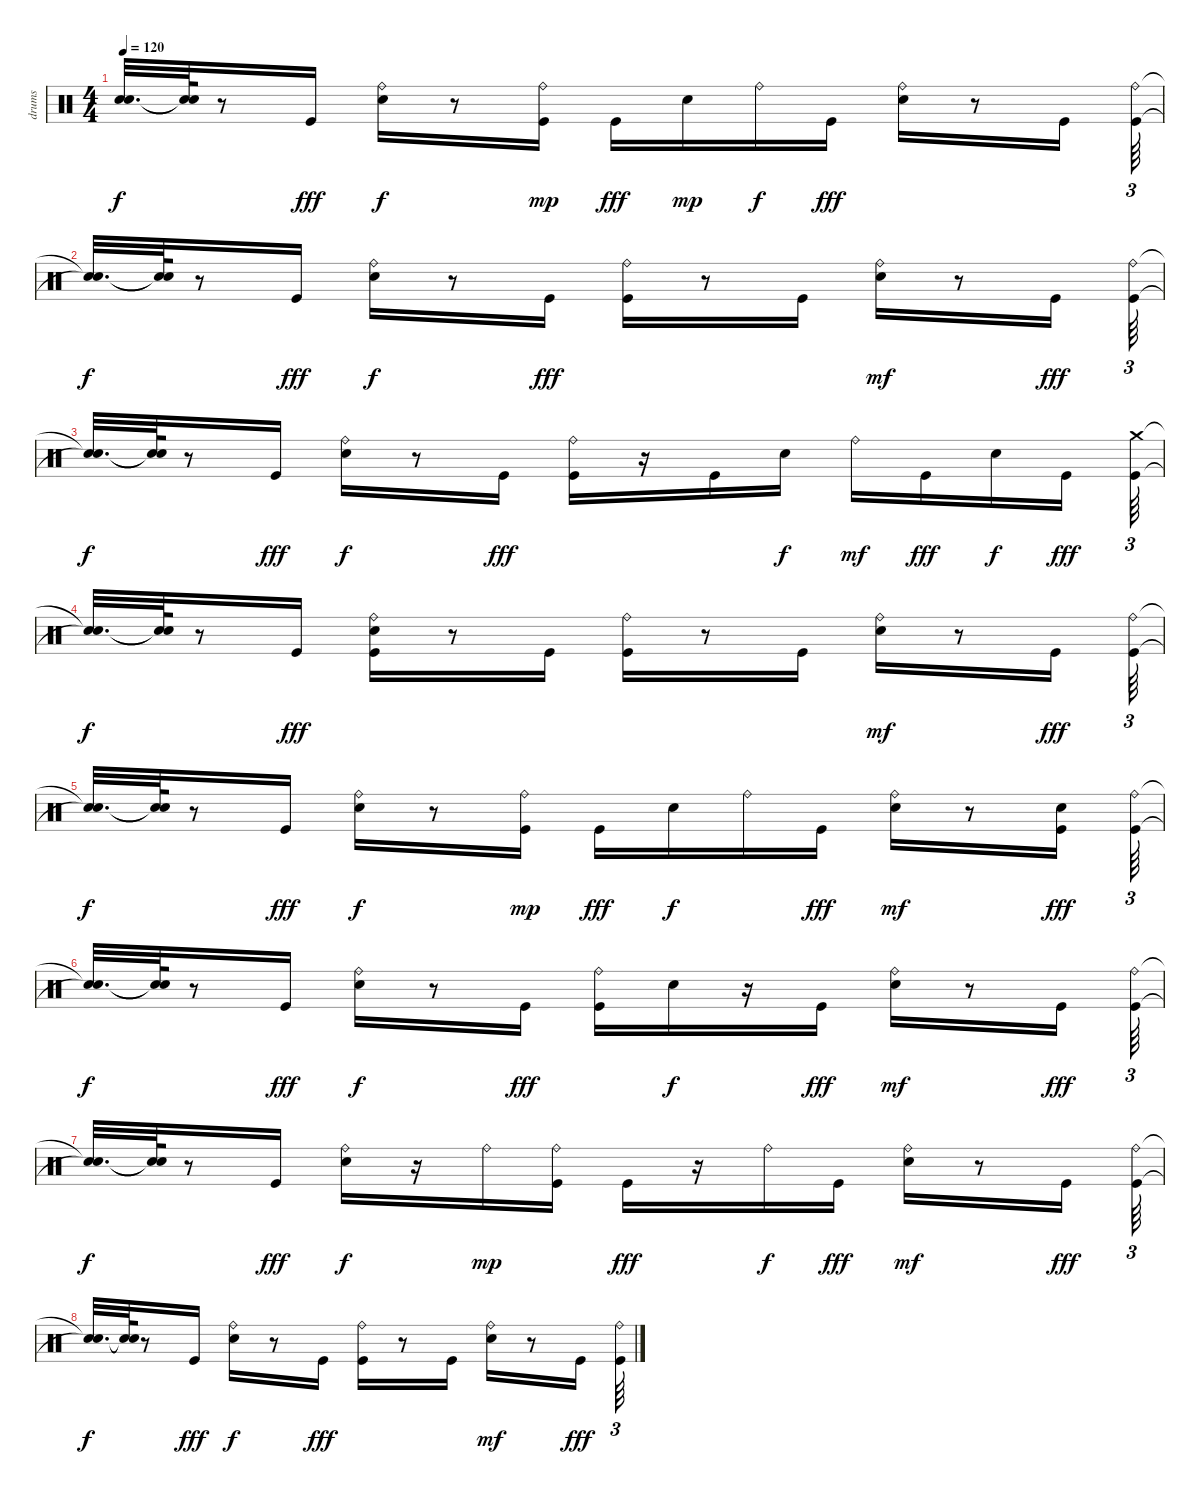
\track ("drums" "drums") {instrument percussion}
\staff {score}
\articulation defaults
\ts (4 4)
\tempo 120
\clef neutral
\ks c
("Snare (hit)"{t} "Snare (hit)"{t}).32{d dy f} ("Snare (hit)"{t} "Snare (hit)"{t}).64 r.8 "Kick (hit)".16{dy fff} ("Snare (hit) 2" "Ride (bell)").16{dy f} r.8 ("Kick (hit)" "Ride (bell)").16{dy mp} "Kick (hit)".16{dy fff} "Snare (hit) 2".16{dy mp} "Ride (bell)".16{dy f} "Kick (hit)".16{dy fff} ("Snare (hit) 2" "Ride (bell)").16 r.8 "Kick (hit)".16 ("Kick (hit)" "Ride (bell)").64{tu (3 2)} |
("Snare (hit)"{t} "Snare (hit)"{t}).32{d dy f} ("Snare (hit)"{t} "Snare (hit)"{t}).64 r.8 "Kick (hit)".16{dy fff} ("Snare (hit) 2" "Ride (bell)").16{dy f} r.8 "Kick (hit)".16{dy fff} ("Kick (hit)" "Ride (bell)").16 r.8 "Kick (hit)".16 ("Snare (hit) 2" "Ride (bell)").16{dy mf} r.8 "Kick (hit)".16{dy fff} ("Kick (hit)" "Ride (bell)").64{tu (3 2)} |
("Snare (hit)"{t} "Snare (hit)"{t}).32{d dy f} ("Snare (hit)"{t} "Snare (hit)"{t}).64 r.8 "Kick (hit)".16{dy fff} ("Snare (hit) 2" "Ride (bell)").16{dy f} r.8 "Kick (hit)".16{dy fff} ("Kick (hit)" "Ride (bell)").16 r.16 "Kick (hit)".16 "Snare (hit) 2".16{dy f} "Ride (bell)".16{dy mf} "Kick (hit)".16{dy fff} "Snare (hit) 2".16{dy f} "Kick (hit)".16{dy fff} ("Kick (hit)" "Crash medium (hit)").64{tu (3 2)} |
("Snare (hit)"{t} "Snare (hit)"{t}).32{d dy f} ("Snare (hit)"{t} "Snare (hit)"{t}).64 r.8 "Kick (hit)".16{dy fff} ("Kick (hit)" "Snare (hit) 2" "Ride (bell)").16 r.8 "Kick (hit)".16 ("Kick (hit)" "Ride (bell)").16 r.8 "Kick (hit)".16 ("Snare (hit) 2" "Ride (bell)").16{dy mf} r.8 "Kick (hit)".16{dy fff} ("Kick (hit)" "Ride (bell)").64{tu (3 2)} |
("Snare (hit)"{t} "Snare (hit)"{t}).32{d dy f} ("Snare (hit)"{t} "Snare (hit)"{t}).64 r.8 "Kick (hit)".16{dy fff} ("Snare (hit) 2" "Ride (bell)").16{dy f} r.8 ("Kick (hit)" "Ride (bell)").16{dy mp} "Kick (hit)".16{dy fff} "Snare (hit) 2".16{dy f} "Ride (bell)".16 "Kick (hit)".16{dy fff} ("Snare (hit) 2" "Ride (bell)").16{dy mf} r.8 ("Kick (hit)" "Snare (hit) 2").16{dy fff} ("Kick (hit)" "Ride (bell)").64{tu (3 2)} |
("Snare (hit)"{t} "Snare (hit)"{t}).32{d dy f} ("Snare (hit)"{t} "Snare (hit)"{t}).64 r.8 "Kick (hit)".16{dy fff} ("Snare (hit) 2" "Ride (bell)").16{dy f} r.8 "Kick (hit)".16{dy fff} ("Kick (hit)" "Ride (bell)").16 "Snare (hit) 2".16{dy f} r.16 "Kick (hit)".16{dy fff} ("Snare (hit) 2" "Ride (bell)").16{dy mf} r.8 "Kick (hit)".16{dy fff} ("Kick (hit)" "Ride (bell)").64{tu (3 2)} |
("Snare (hit)"{t} "Snare (hit)"{t}).32{d dy f} ("Snare (hit)"{t} "Snare (hit)"{t}).64 r.8 "Kick (hit)".16{dy fff} ("Snare (hit) 2" "Ride (bell)").16{dy f} r.16 "Ride (bell)".16{dy mp} ("Kick (hit)" "Ride (bell)").16 "Kick (hit)".16{dy fff} r.16 "Ride (bell)".16{dy f} "Kick (hit)".16{dy fff} ("Snare (hit) 2" "Ride (bell)").16{dy mf} r.8 "Kick (hit)".16{dy fff} ("Kick (hit)" "Ride (bell)").64{tu (3 2)} |
("Snare (hit)"{t} "Snare (hit)"{t}).32{d dy f} ("Snare (hit)"{t} "Snare (hit)"{t}).64 r.8 "Kick (hit)".16{dy fff} ("Snare (hit) 2" "Ride (bell)").16{dy f} r.8 "Kick (hit)".16{dy fff} ("Kick (hit)" "Ride (bell)").16 r.8 "Kick (hit)".16 ("Snare (hit) 2" "Ride (bell)").16{dy mf} r.8 "Kick (hit)".16{dy fff} ("Kick (hit)" "Ride (bell)").64{tu (3 2)}
